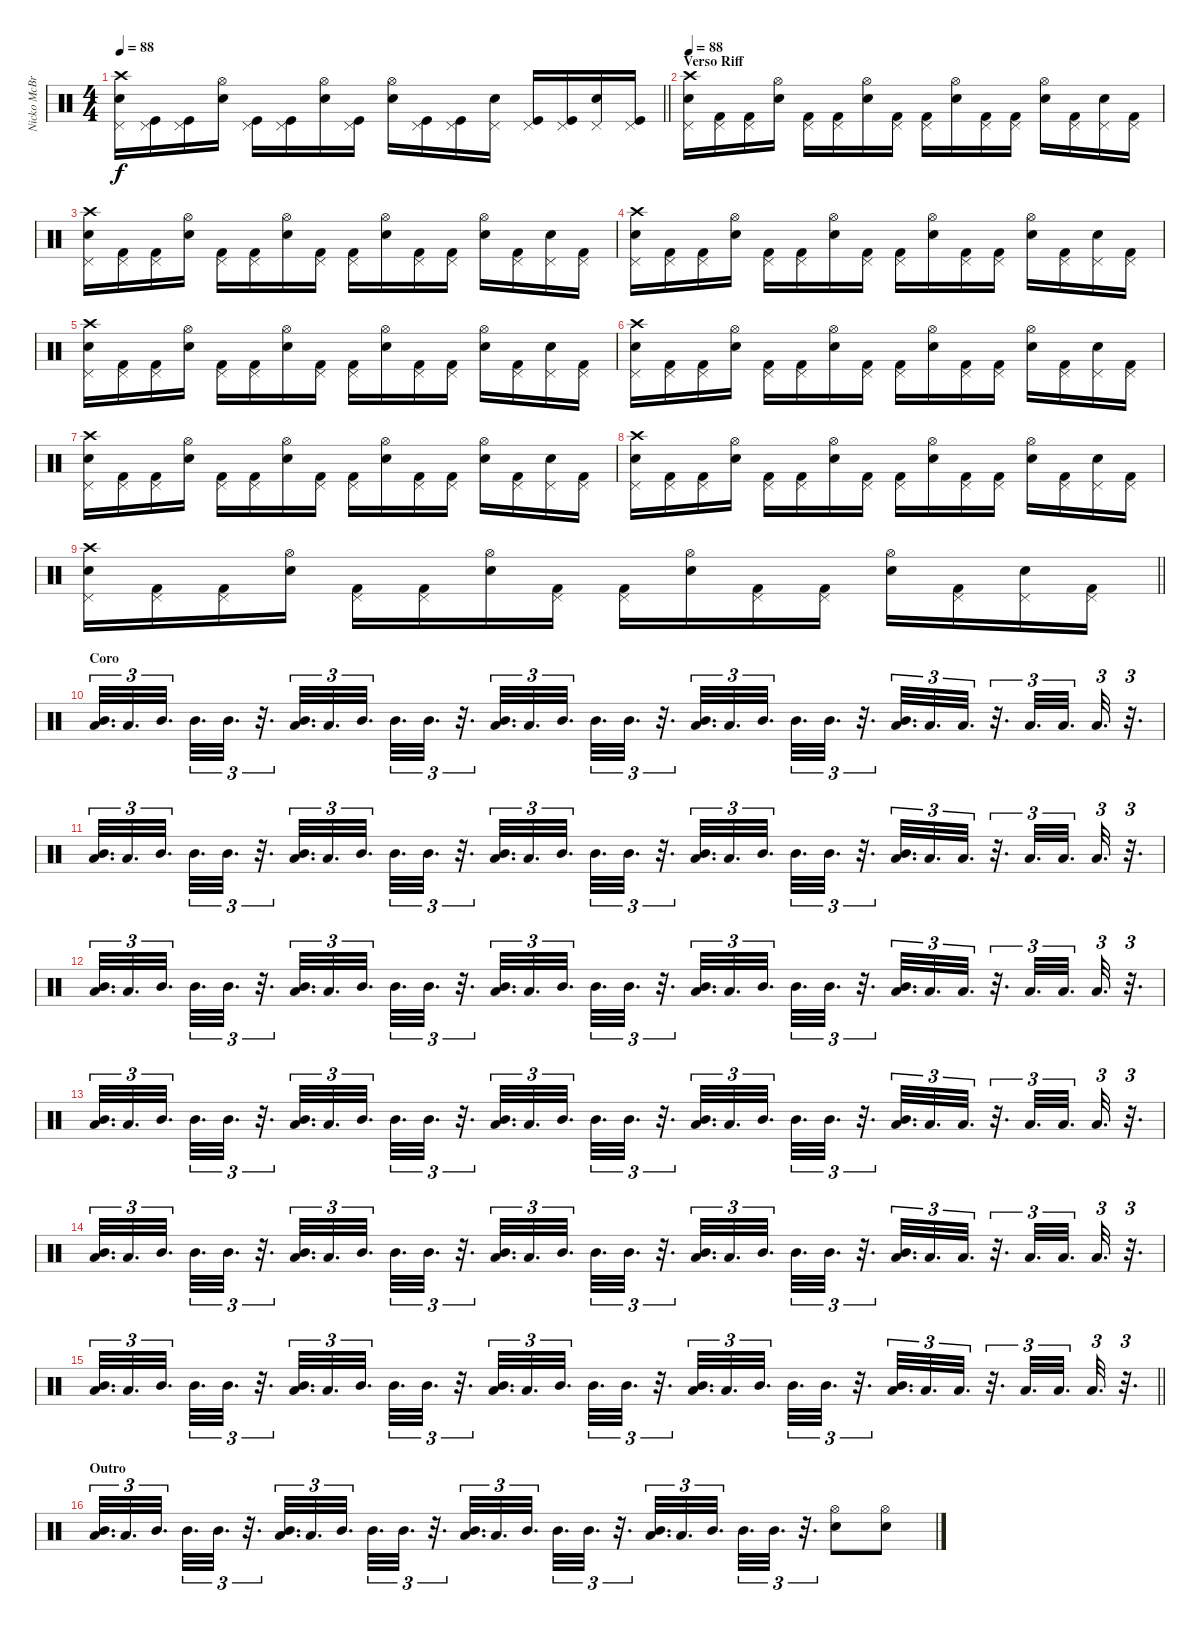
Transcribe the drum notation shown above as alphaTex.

\track ("Nicko McBrain" "Nicko McBr") {instrument percussion}
\staff {score}
\articulation defaults
\ts (4 4)
\tempo 88
\clef neutral
\barLineRight lightlight
\ks c
("Snare (hit) 2" "Pedal Hi-Hat (hit)" "Crash high (hit)").16{dy f} ("Kick (hit)" "Pedal Hi-Hat (hit)").16 ("Kick (hit)" "Pedal Hi-Hat (hit)").16 ("Snare (hit) 2" "Hi-Hat (open)").16 ("Kick (hit)" "Pedal Hi-Hat (hit)").16 ("Kick (hit)" "Pedal Hi-Hat (hit)").16 ("Snare (hit) 2" "Hi-Hat (open)").16 ("Kick (hit)" "Pedal Hi-Hat (hit)").16 ("Snare (hit) 2" "Hi-Hat (open)").16 ("Kick (hit)" "Pedal Hi-Hat (hit)").16 ("Kick (hit)" "Pedal Hi-Hat (hit)").16 ("Snare (hit) 2" "Pedal Hi-Hat (hit)").16 ("Kick (hit)" "Pedal Hi-Hat (hit)").16 ("Kick (hit)" "Pedal Hi-Hat (hit)").16 ("Snare (hit) 2" "Pedal Hi-Hat (hit)").16 ("Kick (hit)" "Pedal Hi-Hat (hit)").16 |
\section ("" "Verso Riff")
\tempo 88
("Snare (hit) 2" "Pedal Hi-Hat (hit)" "Crash high (hit)").16 ("Kick (hit) 2" "Pedal Hi-Hat (hit)").16 ("Kick (hit) 2" "Pedal Hi-Hat (hit)").16 ("Snare (hit) 2" "Hi-Hat (open)").16 ("Kick (hit) 2" "Pedal Hi-Hat (hit)").16 ("Kick (hit) 2" "Pedal Hi-Hat (hit)").16 ("Snare (hit) 2" "Hi-Hat (open)").16 ("Kick (hit) 2" "Pedal Hi-Hat (hit)").16 ("Kick (hit) 2" "Pedal Hi-Hat (hit)").16 ("Snare (hit) 2" "Hi-Hat (open)").16 ("Kick (hit) 2" "Pedal Hi-Hat (hit)").16 ("Kick (hit) 2" "Pedal Hi-Hat (hit)").16 ("Snare (hit) 2" "Hi-Hat (open)").16 ("Kick (hit) 2" "Pedal Hi-Hat (hit)").16 ("Snare (hit) 2" "Pedal Hi-Hat (hit)").16 ("Kick (hit) 2" "Pedal Hi-Hat (hit)").16 |
("Snare (hit) 2" "Pedal Hi-Hat (hit)" "Crash high (hit)").16 ("Kick (hit) 2" "Pedal Hi-Hat (hit)").16 ("Kick (hit) 2" "Pedal Hi-Hat (hit)").16 ("Snare (hit) 2" "Hi-Hat (open)").16 ("Kick (hit) 2" "Pedal Hi-Hat (hit)").16 ("Kick (hit) 2" "Pedal Hi-Hat (hit)").16 ("Snare (hit) 2" "Hi-Hat (open)").16 ("Kick (hit) 2" "Pedal Hi-Hat (hit)").16 ("Kick (hit) 2" "Pedal Hi-Hat (hit)").16 ("Snare (hit) 2" "Hi-Hat (open)").16 ("Kick (hit) 2" "Pedal Hi-Hat (hit)").16 ("Kick (hit) 2" "Pedal Hi-Hat (hit)").16 ("Snare (hit) 2" "Hi-Hat (open)").16 ("Kick (hit) 2" "Pedal Hi-Hat (hit)").16 ("Snare (hit) 2" "Pedal Hi-Hat (hit)").16 ("Kick (hit) 2" "Pedal Hi-Hat (hit)").16 |
("Snare (hit) 2" "Pedal Hi-Hat (hit)" "Crash high (hit)").16 ("Kick (hit) 2" "Pedal Hi-Hat (hit)").16 ("Kick (hit) 2" "Pedal Hi-Hat (hit)").16 ("Snare (hit) 2" "Hi-Hat (open)").16 ("Kick (hit) 2" "Pedal Hi-Hat (hit)").16 ("Kick (hit) 2" "Pedal Hi-Hat (hit)").16 ("Snare (hit) 2" "Hi-Hat (open)").16 ("Kick (hit) 2" "Pedal Hi-Hat (hit)").16 ("Kick (hit) 2" "Pedal Hi-Hat (hit)").16 ("Snare (hit) 2" "Hi-Hat (open)").16 ("Kick (hit) 2" "Pedal Hi-Hat (hit)").16 ("Kick (hit) 2" "Pedal Hi-Hat (hit)").16 ("Snare (hit) 2" "Hi-Hat (open)").16 ("Kick (hit) 2" "Pedal Hi-Hat (hit)").16 ("Snare (hit) 2" "Pedal Hi-Hat (hit)").16 ("Kick (hit) 2" "Pedal Hi-Hat (hit)").16 |
("Snare (hit) 2" "Pedal Hi-Hat (hit)" "Crash high (hit)").16 ("Kick (hit) 2" "Pedal Hi-Hat (hit)").16 ("Kick (hit) 2" "Pedal Hi-Hat (hit)").16 ("Snare (hit) 2" "Hi-Hat (open)").16 ("Kick (hit) 2" "Pedal Hi-Hat (hit)").16 ("Kick (hit) 2" "Pedal Hi-Hat (hit)").16 ("Snare (hit) 2" "Hi-Hat (open)").16 ("Kick (hit) 2" "Pedal Hi-Hat (hit)").16 ("Kick (hit) 2" "Pedal Hi-Hat (hit)").16 ("Snare (hit) 2" "Hi-Hat (open)").16 ("Kick (hit) 2" "Pedal Hi-Hat (hit)").16 ("Kick (hit) 2" "Pedal Hi-Hat (hit)").16 ("Snare (hit) 2" "Hi-Hat (open)").16 ("Kick (hit) 2" "Pedal Hi-Hat (hit)").16 ("Snare (hit) 2" "Pedal Hi-Hat (hit)").16 ("Kick (hit) 2" "Pedal Hi-Hat (hit)").16 |
("Snare (hit) 2" "Pedal Hi-Hat (hit)" "Crash high (hit)").16 ("Kick (hit) 2" "Pedal Hi-Hat (hit)").16 ("Kick (hit) 2" "Pedal Hi-Hat (hit)").16 ("Snare (hit) 2" "Hi-Hat (open)").16 ("Kick (hit) 2" "Pedal Hi-Hat (hit)").16 ("Kick (hit) 2" "Pedal Hi-Hat (hit)").16 ("Snare (hit) 2" "Hi-Hat (open)").16 ("Kick (hit) 2" "Pedal Hi-Hat (hit)").16 ("Kick (hit) 2" "Pedal Hi-Hat (hit)").16 ("Snare (hit) 2" "Hi-Hat (open)").16 ("Kick (hit) 2" "Pedal Hi-Hat (hit)").16 ("Kick (hit) 2" "Pedal Hi-Hat (hit)").16 ("Snare (hit) 2" "Hi-Hat (open)").16 ("Kick (hit) 2" "Pedal Hi-Hat (hit)").16 ("Snare (hit) 2" "Pedal Hi-Hat (hit)").16 ("Kick (hit) 2" "Pedal Hi-Hat (hit)").16 |
("Snare (hit) 2" "Pedal Hi-Hat (hit)" "Crash high (hit)").16 ("Kick (hit) 2" "Pedal Hi-Hat (hit)").16 ("Kick (hit) 2" "Pedal Hi-Hat (hit)").16 ("Snare (hit) 2" "Hi-Hat (open)").16 ("Kick (hit) 2" "Pedal Hi-Hat (hit)").16 ("Kick (hit) 2" "Pedal Hi-Hat (hit)").16 ("Snare (hit) 2" "Hi-Hat (open)").16 ("Kick (hit) 2" "Pedal Hi-Hat (hit)").16 ("Kick (hit) 2" "Pedal Hi-Hat (hit)").16 ("Snare (hit) 2" "Hi-Hat (open)").16 ("Kick (hit) 2" "Pedal Hi-Hat (hit)").16 ("Kick (hit) 2" "Pedal Hi-Hat (hit)").16 ("Snare (hit) 2" "Hi-Hat (open)").16 ("Kick (hit) 2" "Pedal Hi-Hat (hit)").16 ("Snare (hit) 2" "Pedal Hi-Hat (hit)").16 ("Kick (hit) 2" "Pedal Hi-Hat (hit)").16 |
("Snare (hit) 2" "Pedal Hi-Hat (hit)" "Crash high (hit)").16 ("Kick (hit) 2" "Pedal Hi-Hat (hit)").16 ("Kick (hit) 2" "Pedal Hi-Hat (hit)").16 ("Snare (hit) 2" "Hi-Hat (open)").16 ("Kick (hit) 2" "Pedal Hi-Hat (hit)").16 ("Kick (hit) 2" "Pedal Hi-Hat (hit)").16 ("Snare (hit) 2" "Hi-Hat (open)").16 ("Kick (hit) 2" "Pedal Hi-Hat (hit)").16 ("Kick (hit) 2" "Pedal Hi-Hat (hit)").16 ("Snare (hit) 2" "Hi-Hat (open)").16 ("Kick (hit) 2" "Pedal Hi-Hat (hit)").16 ("Kick (hit) 2" "Pedal Hi-Hat (hit)").16 ("Snare (hit) 2" "Hi-Hat (open)").16 ("Kick (hit) 2" "Pedal Hi-Hat (hit)").16 ("Snare (hit) 2" "Pedal Hi-Hat (hit)").16 ("Kick (hit) 2" "Pedal Hi-Hat (hit)").16 |
\barLineRight lightlight
("Snare (hit) 2" "Pedal Hi-Hat (hit)" "Crash high (hit)").16 ("Kick (hit) 2" "Pedal Hi-Hat (hit)").16 ("Kick (hit) 2" "Pedal Hi-Hat (hit)").16 ("Snare (hit) 2" "Hi-Hat (open)").16 ("Kick (hit) 2" "Pedal Hi-Hat (hit)").16 ("Kick (hit) 2" "Pedal Hi-Hat (hit)").16 ("Snare (hit) 2" "Hi-Hat (open)").16 ("Kick (hit) 2" "Pedal Hi-Hat (hit)").16 ("Kick (hit) 2" "Pedal Hi-Hat (hit)").16 ("Snare (hit) 2" "Hi-Hat (open)").16 ("Kick (hit) 2" "Pedal Hi-Hat (hit)").16 ("Kick (hit) 2" "Pedal Hi-Hat (hit)").16 ("Snare (hit) 2" "Hi-Hat (open)").16 ("Kick (hit) 2" "Pedal Hi-Hat (hit)").16 ("Snare (hit) 2" "Pedal Hi-Hat (hit)").16 ("Kick (hit) 2" "Pedal Hi-Hat (hit)").16 |
\section ("" "Coro")
("Mid Tom (hit)" "Low Tom (hit)").32{d tu (3 2)} "Low Tom (hit)".32{d tu (3 2)} "Mid Tom (hit)".32{d tu (3 2)} "Mid Tom (hit)".32{d tu (3 2)} "Mid Tom (hit)".32{d tu (3 2)} r.32{d tu (3 2)} ("Mid Tom (hit)" "Low Tom (hit)").32{d tu (3 2)} "Low Tom (hit)".32{d tu (3 2)} "Mid Tom (hit)".32{d tu (3 2)} "Mid Tom (hit)".32{d tu (3 2)} "Mid Tom (hit)".32{d tu (3 2)} r.32{d tu (3 2)} ("Mid Tom (hit)" "Low Tom (hit)").32{d tu (3 2)} "Low Tom (hit)".32{d tu (3 2)} "Mid Tom (hit)".32{d tu (3 2)} "Mid Tom (hit)".32{d tu (3 2)} "Mid Tom (hit)".32{d tu (3 2)} r.32{d tu (3 2)} ("Mid Tom (hit)" "Low Tom (hit)").32{d tu (3 2)} "Low Tom (hit)".32{d tu (3 2)} "Mid Tom (hit)".32{d tu (3 2)} "Mid Tom (hit)".32{d tu (3 2)} "Mid Tom (hit)".32{d tu (3 2)} r.32{d tu (3 2)} ("Mid Tom (hit)" "Low Tom (hit)").32{d tu (3 2)} "Low Tom (hit)".32{d tu (3 2)} "Low Tom (hit)".32{d tu (3 2)} r.32{d tu (3 2)} "Low Tom (hit)".32{d tu (3 2)} "Low Tom (hit)".32{d tu (3 2)} "Low Tom (hit)".32{d tu (3 2)} r.32{d tu (3 2)} |
("Mid Tom (hit)" "Low Tom (hit)").32{d tu (3 2)} "Low Tom (hit)".32{d tu (3 2)} "Mid Tom (hit)".32{d tu (3 2)} "Mid Tom (hit)".32{d tu (3 2)} "Mid Tom (hit)".32{d tu (3 2)} r.32{d tu (3 2)} ("Mid Tom (hit)" "Low Tom (hit)").32{d tu (3 2)} "Low Tom (hit)".32{d tu (3 2)} "Mid Tom (hit)".32{d tu (3 2)} "Mid Tom (hit)".32{d tu (3 2)} "Mid Tom (hit)".32{d tu (3 2)} r.32{d tu (3 2)} ("Mid Tom (hit)" "Low Tom (hit)").32{d tu (3 2)} "Low Tom (hit)".32{d tu (3 2)} "Mid Tom (hit)".32{d tu (3 2)} "Mid Tom (hit)".32{d tu (3 2)} "Mid Tom (hit)".32{d tu (3 2)} r.32{d tu (3 2)} ("Mid Tom (hit)" "Low Tom (hit)").32{d tu (3 2)} "Low Tom (hit)".32{d tu (3 2)} "Mid Tom (hit)".32{d tu (3 2)} "Mid Tom (hit)".32{d tu (3 2)} "Mid Tom (hit)".32{d tu (3 2)} r.32{d tu (3 2)} ("Mid Tom (hit)" "Low Tom (hit)").32{d tu (3 2)} "Low Tom (hit)".32{d tu (3 2)} "Low Tom (hit)".32{d tu (3 2)} r.32{d tu (3 2)} "Low Tom (hit)".32{d tu (3 2)} "Low Tom (hit)".32{d tu (3 2)} "Low Tom (hit)".32{d tu (3 2)} r.32{d tu (3 2)} |
("Mid Tom (hit)" "Low Tom (hit)").32{d tu (3 2)} "Low Tom (hit)".32{d tu (3 2)} "Mid Tom (hit)".32{d tu (3 2)} "Mid Tom (hit)".32{d tu (3 2)} "Mid Tom (hit)".32{d tu (3 2)} r.32{d tu (3 2)} ("Mid Tom (hit)" "Low Tom (hit)").32{d tu (3 2)} "Low Tom (hit)".32{d tu (3 2)} "Mid Tom (hit)".32{d tu (3 2)} "Mid Tom (hit)".32{d tu (3 2)} "Mid Tom (hit)".32{d tu (3 2)} r.32{d tu (3 2)} ("Mid Tom (hit)" "Low Tom (hit)").32{d tu (3 2)} "Low Tom (hit)".32{d tu (3 2)} "Mid Tom (hit)".32{d tu (3 2)} "Mid Tom (hit)".32{d tu (3 2)} "Mid Tom (hit)".32{d tu (3 2)} r.32{d tu (3 2)} ("Mid Tom (hit)" "Low Tom (hit)").32{d tu (3 2)} "Low Tom (hit)".32{d tu (3 2)} "Mid Tom (hit)".32{d tu (3 2)} "Mid Tom (hit)".32{d tu (3 2)} "Mid Tom (hit)".32{d tu (3 2)} r.32{d tu (3 2)} ("Mid Tom (hit)" "Low Tom (hit)").32{d tu (3 2)} "Low Tom (hit)".32{d tu (3 2)} "Low Tom (hit)".32{d tu (3 2)} r.32{d tu (3 2)} "Low Tom (hit)".32{d tu (3 2)} "Low Tom (hit)".32{d tu (3 2)} "Low Tom (hit)".32{d tu (3 2)} r.32{d tu (3 2)} |
("Mid Tom (hit)" "Low Tom (hit)").32{d tu (3 2)} "Low Tom (hit)".32{d tu (3 2)} "Mid Tom (hit)".32{d tu (3 2)} "Mid Tom (hit)".32{d tu (3 2)} "Mid Tom (hit)".32{d tu (3 2)} r.32{d tu (3 2)} ("Mid Tom (hit)" "Low Tom (hit)").32{d tu (3 2)} "Low Tom (hit)".32{d tu (3 2)} "Mid Tom (hit)".32{d tu (3 2)} "Mid Tom (hit)".32{d tu (3 2)} "Mid Tom (hit)".32{d tu (3 2)} r.32{d tu (3 2)} ("Mid Tom (hit)" "Low Tom (hit)").32{d tu (3 2)} "Low Tom (hit)".32{d tu (3 2)} "Mid Tom (hit)".32{d tu (3 2)} "Mid Tom (hit)".32{d tu (3 2)} "Mid Tom (hit)".32{d tu (3 2)} r.32{d tu (3 2)} ("Mid Tom (hit)" "Low Tom (hit)").32{d tu (3 2)} "Low Tom (hit)".32{d tu (3 2)} "Mid Tom (hit)".32{d tu (3 2)} "Mid Tom (hit)".32{d tu (3 2)} "Mid Tom (hit)".32{d tu (3 2)} r.32{d tu (3 2)} ("Mid Tom (hit)" "Low Tom (hit)").32{d tu (3 2)} "Low Tom (hit)".32{d tu (3 2)} "Low Tom (hit)".32{d tu (3 2)} r.32{d tu (3 2)} "Low Tom (hit)".32{d tu (3 2)} "Low Tom (hit)".32{d tu (3 2)} "Low Tom (hit)".32{d tu (3 2)} r.32{d tu (3 2)} |
("Mid Tom (hit)" "Low Tom (hit)").32{d tu (3 2)} "Low Tom (hit)".32{d tu (3 2)} "Mid Tom (hit)".32{d tu (3 2)} "Mid Tom (hit)".32{d tu (3 2)} "Mid Tom (hit)".32{d tu (3 2)} r.32{d tu (3 2)} ("Mid Tom (hit)" "Low Tom (hit)").32{d tu (3 2)} "Low Tom (hit)".32{d tu (3 2)} "Mid Tom (hit)".32{d tu (3 2)} "Mid Tom (hit)".32{d tu (3 2)} "Mid Tom (hit)".32{d tu (3 2)} r.32{d tu (3 2)} ("Mid Tom (hit)" "Low Tom (hit)").32{d tu (3 2)} "Low Tom (hit)".32{d tu (3 2)} "Mid Tom (hit)".32{d tu (3 2)} "Mid Tom (hit)".32{d tu (3 2)} "Mid Tom (hit)".32{d tu (3 2)} r.32{d tu (3 2)} ("Mid Tom (hit)" "Low Tom (hit)").32{d tu (3 2)} "Low Tom (hit)".32{d tu (3 2)} "Mid Tom (hit)".32{d tu (3 2)} "Mid Tom (hit)".32{d tu (3 2)} "Mid Tom (hit)".32{d tu (3 2)} r.32{d tu (3 2)} ("Mid Tom (hit)" "Low Tom (hit)").32{d tu (3 2)} "Low Tom (hit)".32{d tu (3 2)} "Low Tom (hit)".32{d tu (3 2)} r.32{d tu (3 2)} "Low Tom (hit)".32{d tu (3 2)} "Low Tom (hit)".32{d tu (3 2)} "Low Tom (hit)".32{d tu (3 2)} r.32{d tu (3 2)} |
\barLineRight lightlight
("Mid Tom (hit)" "Low Tom (hit)").32{d tu (3 2)} "Low Tom (hit)".32{d tu (3 2)} "Mid Tom (hit)".32{d tu (3 2)} "Mid Tom (hit)".32{d tu (3 2)} "Mid Tom (hit)".32{d tu (3 2)} r.32{d tu (3 2)} ("Mid Tom (hit)" "Low Tom (hit)").32{d tu (3 2)} "Low Tom (hit)".32{d tu (3 2)} "Mid Tom (hit)".32{d tu (3 2)} "Mid Tom (hit)".32{d tu (3 2)} "Mid Tom (hit)".32{d tu (3 2)} r.32{d tu (3 2)} ("Mid Tom (hit)" "Low Tom (hit)").32{d tu (3 2)} "Low Tom (hit)".32{d tu (3 2)} "Mid Tom (hit)".32{d tu (3 2)} "Mid Tom (hit)".32{d tu (3 2)} "Mid Tom (hit)".32{d tu (3 2)} r.32{d tu (3 2)} ("Mid Tom (hit)" "Low Tom (hit)").32{d tu (3 2)} "Low Tom (hit)".32{d tu (3 2)} "Mid Tom (hit)".32{d tu (3 2)} "Mid Tom (hit)".32{d tu (3 2)} "Mid Tom (hit)".32{d tu (3 2)} r.32{d tu (3 2)} ("Mid Tom (hit)" "Low Tom (hit)").32{d tu (3 2)} "Low Tom (hit)".32{d tu (3 2)} "Low Tom (hit)".32{d tu (3 2)} r.32{d tu (3 2)} "Low Tom (hit)".32{d tu (3 2)} "Low Tom (hit)".32{d tu (3 2)} "Low Tom (hit)".32{d tu (3 2)} r.32{d tu (3 2)} |
\section ("" "Outro")
("Mid Tom (hit)" "Low Tom (hit)").32{d tu (3 2)} "Low Tom (hit)".32{d tu (3 2)} "Mid Tom (hit)".32{d tu (3 2)} "Mid Tom (hit)".32{d tu (3 2)} "Mid Tom (hit)".32{d tu (3 2)} r.32{d tu (3 2)} ("Mid Tom (hit)" "Low Tom (hit)").32{d tu (3 2)} "Low Tom (hit)".32{d tu (3 2)} "Mid Tom (hit)".32{d tu (3 2)} "Mid Tom (hit)".32{d tu (3 2)} "Mid Tom (hit)".32{d tu (3 2)} r.32{d tu (3 2)} ("Mid Tom (hit)" "Low Tom (hit)").32{d tu (3 2)} "Low Tom (hit)".32{d tu (3 2)} "Mid Tom (hit)".32{d tu (3 2)} "Mid Tom (hit)".32{d tu (3 2)} "Mid Tom (hit)".32{d tu (3 2)} r.32{d tu (3 2)} ("Mid Tom (hit)" "Low Tom (hit)").32{d tu (3 2)} "Low Tom (hit)".32{d tu (3 2)} "Mid Tom (hit)".32{d tu (3 2)} "Mid Tom (hit)".32{d tu (3 2)} "Mid Tom (hit)".32{d tu (3 2)} r.32{d tu (3 2)} ("Snare (hit) 2" "Hi-Hat (open)").8 ("Snare (hit) 2" "Hi-Hat (open)").8
